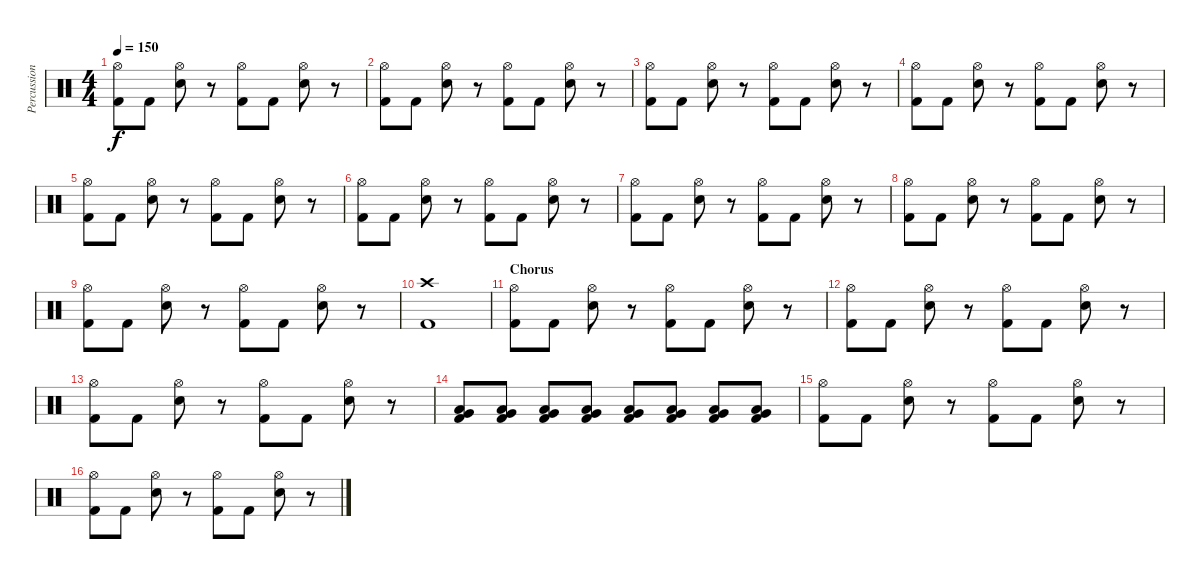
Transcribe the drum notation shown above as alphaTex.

\track ("Percussion" "Percussion") {instrument percussion}
\staff {score}
\articulation defaults
\ts (4 4)
\tempo 150
\clef neutral
\ks c
("Hi-Hat (open)" "Kick (hit) 2").8{dy f} "Kick (hit) 2".8 ("Hi-Hat (open)" "Electric Snare (hit)").8 r.8 ("Hi-Hat (open)" "Kick (hit) 2").8 "Kick (hit) 2".8 ("Hi-Hat (open)" "Electric Snare (hit)").8 r.8 |
("Hi-Hat (open)" "Kick (hit) 2").8 "Kick (hit) 2".8 ("Hi-Hat (open)" "Electric Snare (hit)").8 r.8 ("Hi-Hat (open)" "Kick (hit) 2").8 "Kick (hit) 2".8 ("Hi-Hat (open)" "Electric Snare (hit)").8 r.8 |
("Hi-Hat (open)" "Kick (hit) 2").8 "Kick (hit) 2".8 ("Hi-Hat (open)" "Electric Snare (hit)").8 r.8 ("Hi-Hat (open)" "Kick (hit) 2").8 "Kick (hit) 2".8 ("Hi-Hat (open)" "Electric Snare (hit)").8 r.8 |
("Hi-Hat (open)" "Kick (hit) 2").8 "Kick (hit) 2".8 ("Hi-Hat (open)" "Electric Snare (hit)").8 r.8 ("Hi-Hat (open)" "Kick (hit) 2").8 "Kick (hit) 2".8 ("Hi-Hat (open)" "Electric Snare (hit)").8 r.8 |
("Hi-Hat (open)" "Kick (hit) 2").8 "Kick (hit) 2".8 ("Hi-Hat (open)" "Electric Snare (hit)").8 r.8 ("Hi-Hat (open)" "Kick (hit) 2").8 "Kick (hit) 2".8 ("Hi-Hat (open)" "Electric Snare (hit)").8 r.8 |
("Hi-Hat (open)" "Kick (hit) 2").8 "Kick (hit) 2".8 ("Hi-Hat (open)" "Electric Snare (hit)").8 r.8 ("Hi-Hat (open)" "Kick (hit) 2").8 "Kick (hit) 2".8 ("Hi-Hat (open)" "Electric Snare (hit)").8 r.8 |
("Hi-Hat (open)" "Kick (hit) 2").8 "Kick (hit) 2".8 ("Hi-Hat (open)" "Electric Snare (hit)").8 r.8 ("Hi-Hat (open)" "Kick (hit) 2").8 "Kick (hit) 2".8 ("Hi-Hat (open)" "Electric Snare (hit)").8 r.8 |
("Hi-Hat (open)" "Kick (hit) 2").8 "Kick (hit) 2".8 ("Hi-Hat (open)" "Electric Snare (hit)").8 r.8 ("Hi-Hat (open)" "Kick (hit) 2").8 "Kick (hit) 2".8 ("Hi-Hat (open)" "Electric Snare (hit)").8 r.8 |
("Hi-Hat (open)" "Kick (hit) 2").8 "Kick (hit) 2".8 ("Hi-Hat (open)" "Electric Snare (hit)").8 r.8 ("Hi-Hat (open)" "Kick (hit) 2").8 "Kick (hit) 2".8 ("Hi-Hat (open)" "Electric Snare (hit)").8 r.8 |
("Crash high (hit)" "Kick (hit) 2").1 |
\section ("" "Chorus")
("Hi-Hat (open)" "Kick (hit) 2").8 "Kick (hit) 2".8 ("Hi-Hat (open)" "Electric Snare (hit)").8 r.8 ("Hi-Hat (open)" "Kick (hit) 2").8 "Kick (hit) 2".8 ("Hi-Hat (open)" "Electric Snare (hit)").8 r.8 |
("Hi-Hat (open)" "Kick (hit) 2").8 "Kick (hit) 2".8 ("Hi-Hat (open)" "Electric Snare (hit)").8 r.8 ("Hi-Hat (open)" "Kick (hit) 2").8 "Kick (hit) 2".8 ("Hi-Hat (open)" "Electric Snare (hit)").8 r.8 |
("Hi-Hat (open)" "Kick (hit) 2").8 "Kick (hit) 2".8 ("Hi-Hat (open)" "Electric Snare (hit)").8 r.8 ("Hi-Hat (open)" "Kick (hit) 2").8 "Kick (hit) 2".8 ("Hi-Hat (open)" "Electric Snare (hit)").8 r.8 |
("Low Tom (hit)" "Very Low Tom (hit)" "Kick (hit) 2").8 ("Low Tom (hit)" "Very Low Tom (hit)" "Kick (hit) 2").8 ("Low Tom (hit)" "Very Low Tom (hit)" "Kick (hit) 2").8 ("Low Tom (hit)" "Very Low Tom (hit)" "Kick (hit) 2").8 ("Low Tom (hit)" "Very Low Tom (hit)" "Kick (hit) 2").8 ("Low Tom (hit)" "Very Low Tom (hit)" "Kick (hit) 2").8 ("Low Tom (hit)" "Very Low Tom (hit)" "Kick (hit) 2").8 ("Low Tom (hit)" "Very Low Tom (hit)" "Kick (hit) 2").8 |
("Hi-Hat (open)" "Kick (hit) 2").8 "Kick (hit) 2".8 ("Hi-Hat (open)" "Electric Snare (hit)").8 r.8 ("Hi-Hat (open)" "Kick (hit) 2").8 "Kick (hit) 2".8 ("Hi-Hat (open)" "Electric Snare (hit)").8 r.8 |
("Hi-Hat (open)" "Kick (hit) 2").8 "Kick (hit) 2".8 ("Hi-Hat (open)" "Electric Snare (hit)").8 r.8 ("Hi-Hat (open)" "Kick (hit) 2").8 "Kick (hit) 2".8 ("Hi-Hat (open)" "Electric Snare (hit)").8 r.8
